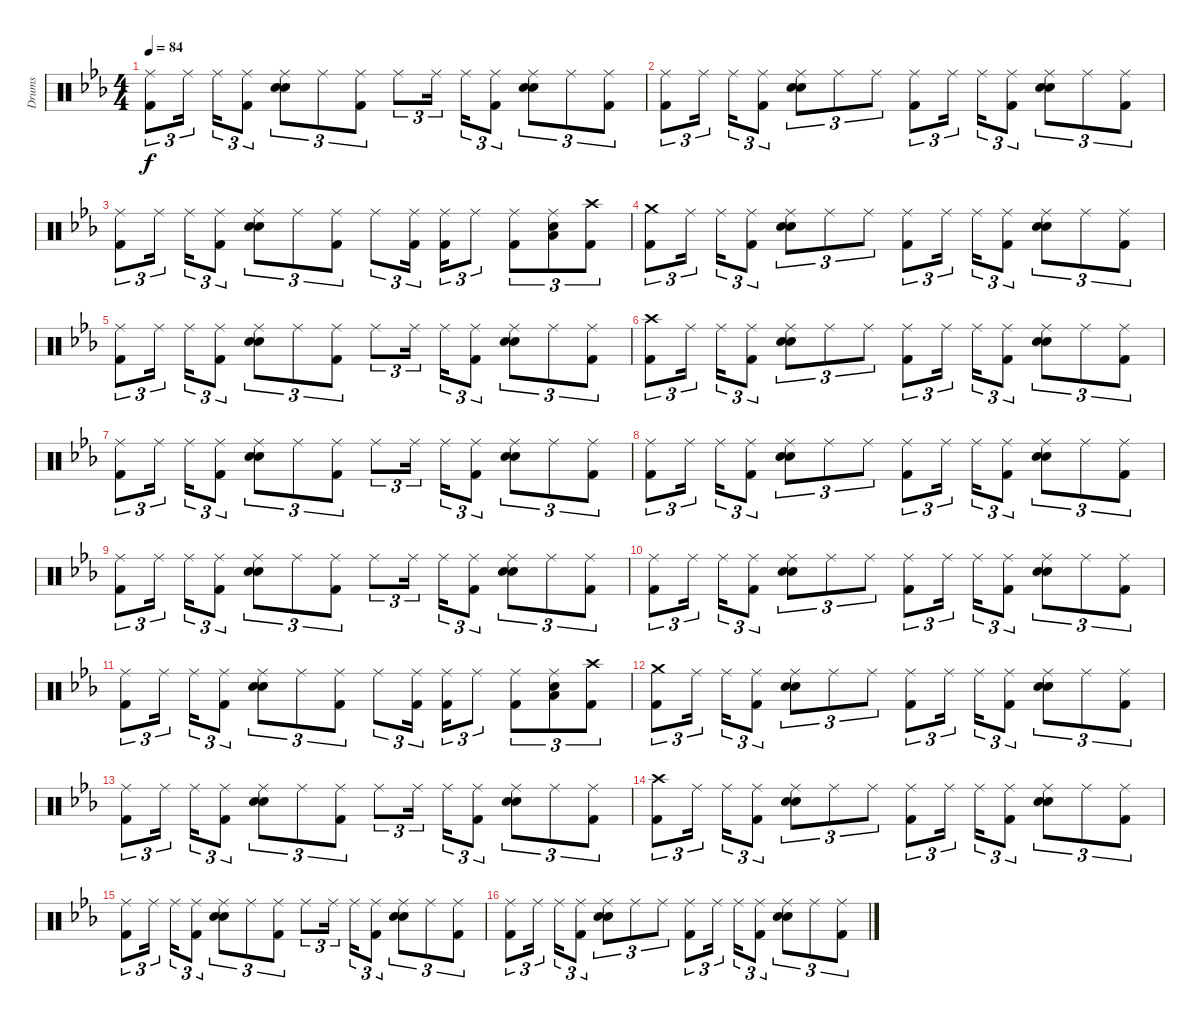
\track ("Drums" "Drums") {instrument percussion}
\staff {score}
\articulation defaults
\ts (4 4)
\tempo 84
\clef neutral
\ks eb
("Ride (middle)" "Kick (hit) 2").8{tu (3 2) dy f} "Ride (middle)".16{tu (3 2)} "Ride (middle)".16{tu (3 2)} ("Ride (middle)" "Kick (hit) 2").8{tu (3 2)} ("Ride (middle)" "Hand Clap (hit)" "Electric Snare (hit)").8{tu (3 2)} "Ride (middle)".8{tu (3 2)} ("Ride (middle)" "Kick (hit) 2").8{tu (3 2)} "Ride (middle)".8{tu (3 2)} "Ride (middle)".16{tu (3 2)} "Ride (middle)".16{tu (3 2)} ("Ride (middle)" "Kick (hit) 2").8{tu (3 2)} ("Ride (middle)" "Hand Clap (hit)" "Electric Snare (hit)").8{tu (3 2)} "Ride (middle)".8{tu (3 2)} ("Ride (middle)" "Kick (hit) 2").8{tu (3 2)} |
("Ride (middle)" "Kick (hit) 2").8{tu (3 2)} "Ride (middle)".16{tu (3 2)} "Ride (middle)".16{tu (3 2)} ("Ride (middle)" "Kick (hit) 2").8{tu (3 2)} ("Ride (middle)" "Hand Clap (hit)" "Electric Snare (hit)").8{tu (3 2)} "Ride (middle)".8{tu (3 2)} "Ride (middle)".8{tu (3 2)} ("Ride (middle)" "Kick (hit) 2").8{tu (3 2)} "Ride (middle)".16{tu (3 2)} "Ride (middle)".16{tu (3 2)} ("Ride (middle)" "Kick (hit) 2").8{tu (3 2)} ("Ride (middle)" "Hand Clap (hit)" "Electric Snare (hit)").8{tu (3 2)} "Ride (middle)".8{tu (3 2)} ("Ride (middle)" "Kick (hit) 2").8{tu (3 2)} |
("Ride (middle)" "Kick (hit) 2").8{tu (3 2)} "Ride (middle)".16{tu (3 2)} "Ride (middle)".16{tu (3 2)} ("Ride (middle)" "Kick (hit) 2").8{tu (3 2)} ("Ride (middle)" "Hand Clap (hit)" "Electric Snare (hit)").8{tu (3 2)} "Ride (middle)".8{tu (3 2)} ("Ride (middle)" "Kick (hit) 2").8{tu (3 2)} "Ride (middle)".8{tu (3 2)} ("Ride (middle)" "Kick (hit) 2").16{tu (3 2)} ("Ride (middle)" "Kick (hit) 2").16{tu (3 2)} "Ride (middle)".8{tu (3 2)} ("Ride (middle)" "Kick (hit) 2").8{tu (3 2)} ("Ride (middle)" "Low Tom (hit)" "Electric Snare (hit)").8{tu (3 2)} ("Crash high (hit)" "Kick (hit) 2").8{tu (3 2)} |
("Crash medium (hit)" "Kick (hit) 2").8{tu (3 2)} "Ride (middle)".16{tu (3 2)} "Ride (middle)".16{tu (3 2)} ("Ride (middle)" "Kick (hit) 2").8{tu (3 2)} ("Ride (middle)" "Hand Clap (hit)" "Electric Snare (hit)").8{tu (3 2)} "Ride (middle)".8{tu (3 2)} "Ride (middle)".8{tu (3 2)} ("Ride (middle)" "Kick (hit) 2").8{tu (3 2)} "Ride (middle)".16{tu (3 2)} "Ride (middle)".16{tu (3 2)} ("Ride (middle)" "Kick (hit) 2").8{tu (3 2)} ("Ride (middle)" "Hand Clap (hit)" "Electric Snare (hit)").8{tu (3 2)} "Ride (middle)".8{tu (3 2)} ("Ride (middle)" "Kick (hit) 2").8{tu (3 2)} |
("Ride (middle)" "Kick (hit) 2").8{tu (3 2)} "Ride (middle)".16{tu (3 2)} "Ride (middle)".16{tu (3 2)} ("Ride (middle)" "Kick (hit) 2").8{tu (3 2)} ("Ride (middle)" "Hand Clap (hit)" "Electric Snare (hit)").8{tu (3 2)} "Ride (middle)".8{tu (3 2)} ("Ride (middle)" "Kick (hit) 2").8{tu (3 2)} "Ride (middle)".8{tu (3 2)} "Ride (middle)".16{tu (3 2)} "Ride (middle)".16{tu (3 2)} ("Ride (middle)" "Kick (hit) 2").8{tu (3 2)} ("Ride (middle)" "Hand Clap (hit)" "Electric Snare (hit)").8{tu (3 2)} "Ride (middle)".8{tu (3 2)} ("Ride (middle)" "Kick (hit) 2").8{tu (3 2)} |
("Crash high (hit)" "Kick (hit) 2").8{tu (3 2)} "Ride (middle)".16{tu (3 2)} "Ride (middle)".16{tu (3 2)} ("Ride (middle)" "Kick (hit) 2").8{tu (3 2)} ("Ride (middle)" "Hand Clap (hit)" "Electric Snare (hit)").8{tu (3 2)} "Ride (middle)".8{tu (3 2)} "Ride (middle)".8{tu (3 2)} ("Ride (middle)" "Kick (hit) 2").8{tu (3 2)} "Ride (middle)".16{tu (3 2)} "Ride (middle)".16{tu (3 2)} ("Ride (middle)" "Kick (hit) 2").8{tu (3 2)} ("Ride (middle)" "Hand Clap (hit)" "Electric Snare (hit)").8{tu (3 2)} "Ride (middle)".8{tu (3 2)} ("Ride (middle)" "Kick (hit) 2").8{tu (3 2)} |
("Ride (middle)" "Kick (hit) 2").8{tu (3 2)} "Ride (middle)".16{tu (3 2)} "Ride (middle)".16{tu (3 2)} ("Ride (middle)" "Kick (hit) 2").8{tu (3 2)} ("Ride (middle)" "Hand Clap (hit)" "Electric Snare (hit)").8{tu (3 2)} "Ride (middle)".8{tu (3 2)} ("Ride (middle)" "Kick (hit) 2").8{tu (3 2)} "Ride (middle)".8{tu (3 2)} "Ride (middle)".16{tu (3 2)} "Ride (middle)".16{tu (3 2)} ("Ride (middle)" "Kick (hit) 2").8{tu (3 2)} ("Ride (middle)" "Hand Clap (hit)" "Electric Snare (hit)").8{tu (3 2)} "Ride (middle)".8{tu (3 2)} ("Ride (middle)" "Kick (hit) 2").8{tu (3 2)} |
("Ride (middle)" "Kick (hit) 2").8{tu (3 2)} "Ride (middle)".16{tu (3 2)} "Ride (middle)".16{tu (3 2)} ("Ride (middle)" "Kick (hit) 2").8{tu (3 2)} ("Ride (middle)" "Hand Clap (hit)" "Electric Snare (hit)").8{tu (3 2)} "Ride (middle)".8{tu (3 2)} "Ride (middle)".8{tu (3 2)} ("Ride (middle)" "Kick (hit) 2").8{tu (3 2)} "Ride (middle)".16{tu (3 2)} "Ride (middle)".16{tu (3 2)} ("Ride (middle)" "Kick (hit) 2").8{tu (3 2)} ("Ride (middle)" "Hand Clap (hit)" "Electric Snare (hit)").8{tu (3 2)} "Ride (middle)".8{tu (3 2)} ("Ride (middle)" "Kick (hit) 2").8{tu (3 2)} |
("Ride (middle)" "Kick (hit) 2").8{tu (3 2)} "Ride (middle)".16{tu (3 2)} "Ride (middle)".16{tu (3 2)} ("Ride (middle)" "Kick (hit) 2").8{tu (3 2)} ("Ride (middle)" "Hand Clap (hit)" "Electric Snare (hit)").8{tu (3 2)} "Ride (middle)".8{tu (3 2)} ("Ride (middle)" "Kick (hit) 2").8{tu (3 2)} "Ride (middle)".8{tu (3 2)} "Ride (middle)".16{tu (3 2)} "Ride (middle)".16{tu (3 2)} ("Ride (middle)" "Kick (hit) 2").8{tu (3 2)} ("Ride (middle)" "Hand Clap (hit)" "Electric Snare (hit)").8{tu (3 2)} "Ride (middle)".8{tu (3 2)} ("Ride (middle)" "Kick (hit) 2").8{tu (3 2)} |
("Ride (middle)" "Kick (hit) 2").8{tu (3 2)} "Ride (middle)".16{tu (3 2)} "Ride (middle)".16{tu (3 2)} ("Ride (middle)" "Kick (hit) 2").8{tu (3 2)} ("Ride (middle)" "Hand Clap (hit)" "Electric Snare (hit)").8{tu (3 2)} "Ride (middle)".8{tu (3 2)} "Ride (middle)".8{tu (3 2)} ("Ride (middle)" "Kick (hit) 2").8{tu (3 2)} "Ride (middle)".16{tu (3 2)} "Ride (middle)".16{tu (3 2)} ("Ride (middle)" "Kick (hit) 2").8{tu (3 2)} ("Ride (middle)" "Hand Clap (hit)" "Electric Snare (hit)").8{tu (3 2)} "Ride (middle)".8{tu (3 2)} ("Ride (middle)" "Kick (hit) 2").8{tu (3 2)} |
("Ride (middle)" "Kick (hit) 2").8{tu (3 2)} "Ride (middle)".16{tu (3 2)} "Ride (middle)".16{tu (3 2)} ("Ride (middle)" "Kick (hit) 2").8{tu (3 2)} ("Ride (middle)" "Hand Clap (hit)" "Electric Snare (hit)").8{tu (3 2)} "Ride (middle)".8{tu (3 2)} ("Ride (middle)" "Kick (hit) 2").8{tu (3 2)} "Ride (middle)".8{tu (3 2)} ("Ride (middle)" "Kick (hit) 2").16{tu (3 2)} ("Ride (middle)" "Kick (hit) 2").16{tu (3 2)} "Ride (middle)".8{tu (3 2)} ("Ride (middle)" "Kick (hit) 2").8{tu (3 2)} ("Ride (middle)" "Low Tom (hit)" "Electric Snare (hit)").8{tu (3 2)} ("Crash high (hit)" "Kick (hit) 2").8{tu (3 2)} |
("Crash medium (hit)" "Kick (hit) 2").8{tu (3 2)} "Ride (middle)".16{tu (3 2)} "Ride (middle)".16{tu (3 2)} ("Ride (middle)" "Kick (hit) 2").8{tu (3 2)} ("Ride (middle)" "Hand Clap (hit)" "Electric Snare (hit)").8{tu (3 2)} "Ride (middle)".8{tu (3 2)} "Ride (middle)".8{tu (3 2)} ("Ride (middle)" "Kick (hit) 2").8{tu (3 2)} "Ride (middle)".16{tu (3 2)} "Ride (middle)".16{tu (3 2)} ("Ride (middle)" "Kick (hit) 2").8{tu (3 2)} ("Ride (middle)" "Hand Clap (hit)" "Electric Snare (hit)").8{tu (3 2)} "Ride (middle)".8{tu (3 2)} ("Ride (middle)" "Kick (hit) 2").8{tu (3 2)} |
("Ride (middle)" "Kick (hit) 2").8{tu (3 2)} "Ride (middle)".16{tu (3 2)} "Ride (middle)".16{tu (3 2)} ("Ride (middle)" "Kick (hit) 2").8{tu (3 2)} ("Ride (middle)" "Hand Clap (hit)" "Electric Snare (hit)").8{tu (3 2)} "Ride (middle)".8{tu (3 2)} ("Ride (middle)" "Kick (hit) 2").8{tu (3 2)} "Ride (middle)".8{tu (3 2)} "Ride (middle)".16{tu (3 2)} "Ride (middle)".16{tu (3 2)} ("Ride (middle)" "Kick (hit) 2").8{tu (3 2)} ("Ride (middle)" "Hand Clap (hit)" "Electric Snare (hit)").8{tu (3 2)} "Ride (middle)".8{tu (3 2)} ("Ride (middle)" "Kick (hit) 2").8{tu (3 2)} |
("Crash high (hit)" "Kick (hit) 2").8{tu (3 2)} "Ride (middle)".16{tu (3 2)} "Ride (middle)".16{tu (3 2)} ("Ride (middle)" "Kick (hit) 2").8{tu (3 2)} ("Ride (middle)" "Hand Clap (hit)" "Electric Snare (hit)").8{tu (3 2)} "Ride (middle)".8{tu (3 2)} "Ride (middle)".8{tu (3 2)} ("Ride (middle)" "Kick (hit) 2").8{tu (3 2)} "Ride (middle)".16{tu (3 2)} "Ride (middle)".16{tu (3 2)} ("Ride (middle)" "Kick (hit) 2").8{tu (3 2)} ("Ride (middle)" "Hand Clap (hit)" "Electric Snare (hit)").8{tu (3 2)} "Ride (middle)".8{tu (3 2)} ("Ride (middle)" "Kick (hit) 2").8{tu (3 2)} |
("Ride (middle)" "Kick (hit) 2").8{tu (3 2)} "Ride (middle)".16{tu (3 2)} "Ride (middle)".16{tu (3 2)} ("Ride (middle)" "Kick (hit) 2").8{tu (3 2)} ("Ride (middle)" "Hand Clap (hit)" "Electric Snare (hit)").8{tu (3 2)} "Ride (middle)".8{tu (3 2)} ("Ride (middle)" "Kick (hit) 2").8{tu (3 2)} "Ride (middle)".8{tu (3 2)} "Ride (middle)".16{tu (3 2)} "Ride (middle)".16{tu (3 2)} ("Ride (middle)" "Kick (hit) 2").8{tu (3 2)} ("Ride (middle)" "Hand Clap (hit)" "Electric Snare (hit)").8{tu (3 2)} "Ride (middle)".8{tu (3 2)} ("Ride (middle)" "Kick (hit) 2").8{tu (3 2)} |
("Ride (middle)" "Kick (hit) 2").8{tu (3 2)} "Ride (middle)".16{tu (3 2)} "Ride (middle)".16{tu (3 2)} ("Ride (middle)" "Kick (hit) 2").8{tu (3 2)} ("Ride (middle)" "Hand Clap (hit)" "Electric Snare (hit)").8{tu (3 2)} "Ride (middle)".8{tu (3 2)} "Ride (middle)".8{tu (3 2)} ("Ride (middle)" "Kick (hit) 2").8{tu (3 2)} "Ride (middle)".16{tu (3 2)} "Ride (middle)".16{tu (3 2)} ("Ride (middle)" "Kick (hit) 2").8{tu (3 2)} ("Ride (middle)" "Hand Clap (hit)" "Electric Snare (hit)").8{tu (3 2)} "Ride (middle)".8{tu (3 2)} ("Ride (middle)" "Kick (hit) 2").8{tu (3 2)}
